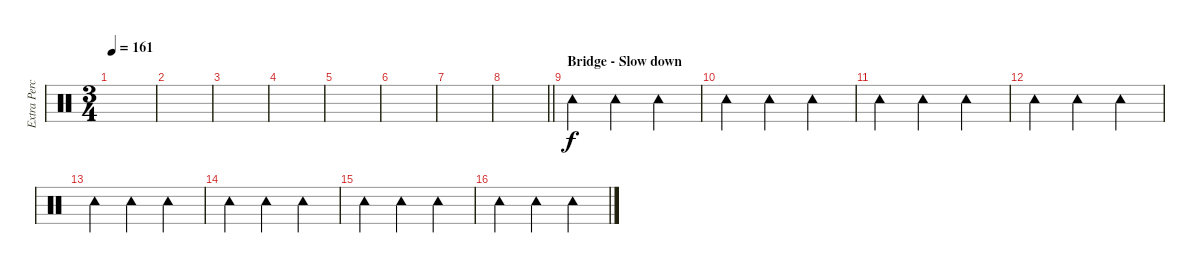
\track ("Extra Percussion" "Extra Perc") {instrument percussion}
\staff {score}
\articulation defaults
\ts (3 4)
\tempo 161
\clef neutral
\ks c
|
|
|
|
|
|
|
\barLineRight lightlight
|
\section ("" "Bridge - Slow down")
"Tambourine (hit)".4 "Tambourine (hit)".4 "Tambourine (hit)".4 |
"Tambourine (hit)".4 "Tambourine (hit)".4 "Tambourine (hit)".4 |
"Tambourine (hit)".4 "Tambourine (hit)".4 "Tambourine (hit)".4 |
"Tambourine (hit)".4 "Tambourine (hit)".4 "Tambourine (hit)".4 |
"Tambourine (hit)".4 "Tambourine (hit)".4 "Tambourine (hit)".4 |
"Tambourine (hit)".4 "Tambourine (hit)".4 "Tambourine (hit)".4 |
"Tambourine (hit)".4 "Tambourine (hit)".4 "Tambourine (hit)".4 |
"Tambourine (hit)".4 "Tambourine (hit)".4 "Tambourine (hit)".4
